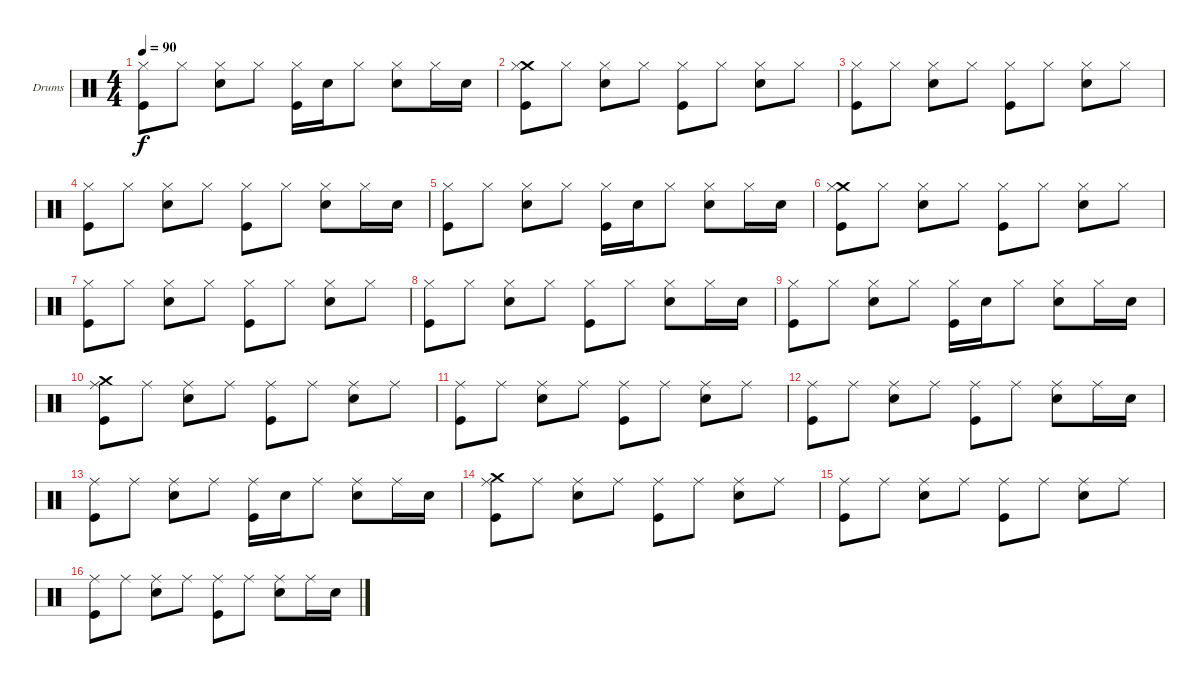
\bracketExtendMode groupsimilarinstruments
\firstSystemTrackNameOrientation horizontal
\otherSystemsTrackNameOrientation horizontal
\track ("Drumkit" "Drums") {instrument percussion}
\staff {score}
\articulation defaults
\ts (4 4)
\tempo 90
\clef neutral
\ks c
("Hi-Hat (closed)" "Kick (hit)").8{dy f} "Hi-Hat (closed)".8 ("Hi-Hat (closed)" "Snare (hit) 2").8 "Hi-Hat (closed)".8 ("Hi-Hat (closed)" "Kick (hit)").16 "Snare (hit) 2".16 "Hi-Hat (closed)".8 ("Hi-Hat (closed)" "Snare (hit) 2").8 "Hi-Hat (closed)".16 "Snare (hit) 2".16 |
("Crash medium (hit)" "Hi-Hat (closed)" "Kick (hit)").8 "Hi-Hat (closed)".8 ("Hi-Hat (closed)" "Snare (hit) 2").8 "Hi-Hat (closed)".8 ("Hi-Hat (closed)" "Kick (hit)").8 "Hi-Hat (closed)".8 ("Hi-Hat (closed)" "Snare (hit) 2").8 "Hi-Hat (closed)".8 |
("Hi-Hat (closed)" "Kick (hit)").8 "Hi-Hat (closed)".8 ("Hi-Hat (closed)" "Snare (hit) 2").8 "Hi-Hat (closed)".8 ("Hi-Hat (closed)" "Kick (hit)").8 "Hi-Hat (closed)".8 ("Hi-Hat (closed)" "Snare (hit) 2").8 "Hi-Hat (closed)".8 |
("Hi-Hat (closed)" "Kick (hit)").8 "Hi-Hat (closed)".8 ("Hi-Hat (closed)" "Snare (hit) 2").8 "Hi-Hat (closed)".8 ("Hi-Hat (closed)" "Kick (hit)").8 "Hi-Hat (closed)".8 ("Hi-Hat (closed)" "Snare (hit) 2").8 "Hi-Hat (closed)".16 "Snare (hit) 2".16 |
("Hi-Hat (closed)" "Kick (hit)").8 "Hi-Hat (closed)".8 ("Hi-Hat (closed)" "Snare (hit) 2").8 "Hi-Hat (closed)".8 ("Hi-Hat (closed)" "Kick (hit)").16 "Snare (hit) 2".16 "Hi-Hat (closed)".8 ("Hi-Hat (closed)" "Snare (hit) 2").8 "Hi-Hat (closed)".16 "Snare (hit) 2".16 |
("Crash medium (hit)" "Hi-Hat (closed)" "Kick (hit)").8 "Hi-Hat (closed)".8 ("Hi-Hat (closed)" "Snare (hit) 2").8 "Hi-Hat (closed)".8 ("Hi-Hat (closed)" "Kick (hit)").8 "Hi-Hat (closed)".8 ("Hi-Hat (closed)" "Snare (hit) 2").8 "Hi-Hat (closed)".8 |
("Hi-Hat (closed)" "Kick (hit)").8 "Hi-Hat (closed)".8 ("Hi-Hat (closed)" "Snare (hit) 2").8 "Hi-Hat (closed)".8 ("Hi-Hat (closed)" "Kick (hit)").8 "Hi-Hat (closed)".8 ("Hi-Hat (closed)" "Snare (hit) 2").8 "Hi-Hat (closed)".8 |
("Hi-Hat (closed)" "Kick (hit)").8 "Hi-Hat (closed)".8 ("Hi-Hat (closed)" "Snare (hit) 2").8 "Hi-Hat (closed)".8 ("Hi-Hat (closed)" "Kick (hit)").8 "Hi-Hat (closed)".8 ("Hi-Hat (closed)" "Snare (hit) 2").8 "Hi-Hat (closed)".16 "Snare (hit) 2".16 |
("Hi-Hat (closed)" "Kick (hit)").8 "Hi-Hat (closed)".8 ("Hi-Hat (closed)" "Snare (hit) 2").8 "Hi-Hat (closed)".8 ("Hi-Hat (closed)" "Kick (hit)").16 "Snare (hit) 2".16 "Hi-Hat (closed)".8 ("Hi-Hat (closed)" "Snare (hit) 2").8 "Hi-Hat (closed)".16 "Snare (hit) 2".16 |
("Crash medium (hit)" "Ride (middle)" "Kick (hit)").8 "Ride (middle)".8 ("Ride (middle)" "Snare (hit) 2").8 "Ride (middle)".8 ("Ride (middle)" "Kick (hit)").8 "Ride (middle)".8 ("Ride (middle)" "Snare (hit) 2").8 "Ride (middle)".8 |
("Ride (middle)" "Kick (hit)").8 "Ride (middle)".8 ("Ride (middle)" "Snare (hit) 2").8 "Ride (middle)".8 ("Ride (middle)" "Kick (hit)").8 "Ride (middle)".8 ("Ride (middle)" "Snare (hit) 2").8 "Ride (middle)".8 |
("Ride (middle)" "Kick (hit)").8 "Ride (middle)".8 ("Ride (middle)" "Snare (hit) 2").8 "Ride (middle)".8 ("Ride (middle)" "Kick (hit)").8 "Ride (middle)".8 ("Ride (middle)" "Snare (hit) 2").8 "Ride (middle)".16 "Snare (hit) 2".16 |
("Ride (middle)" "Kick (hit)").8 "Ride (middle)".8 ("Ride (middle)" "Snare (hit) 2").8 "Ride (middle)".8 ("Ride (middle)" "Kick (hit)").16 "Snare (hit) 2".16 "Ride (middle)".8 ("Ride (middle)" "Snare (hit) 2").8 "Ride (middle)".16 "Snare (hit) 2".16 |
("Crash medium (hit)" "Ride (middle)" "Kick (hit)").8 "Ride (middle)".8 ("Ride (middle)" "Snare (hit) 2").8 "Ride (middle)".8 ("Ride (middle)" "Kick (hit)").8 "Ride (middle)".8 ("Ride (middle)" "Snare (hit) 2").8 "Ride (middle)".8 |
("Ride (middle)" "Kick (hit)").8 "Ride (middle)".8 ("Ride (middle)" "Snare (hit) 2").8 "Ride (middle)".8 ("Ride (middle)" "Kick (hit)").8 "Ride (middle)".8 ("Ride (middle)" "Snare (hit) 2").8 "Ride (middle)".8 |
("Ride (middle)" "Kick (hit)").8 "Ride (middle)".8 ("Ride (middle)" "Snare (hit) 2").8 "Ride (middle)".8 ("Ride (middle)" "Kick (hit)").8 "Ride (middle)".8 ("Ride (middle)" "Snare (hit) 2").8 "Ride (middle)".16 "Snare (hit) 2".16
